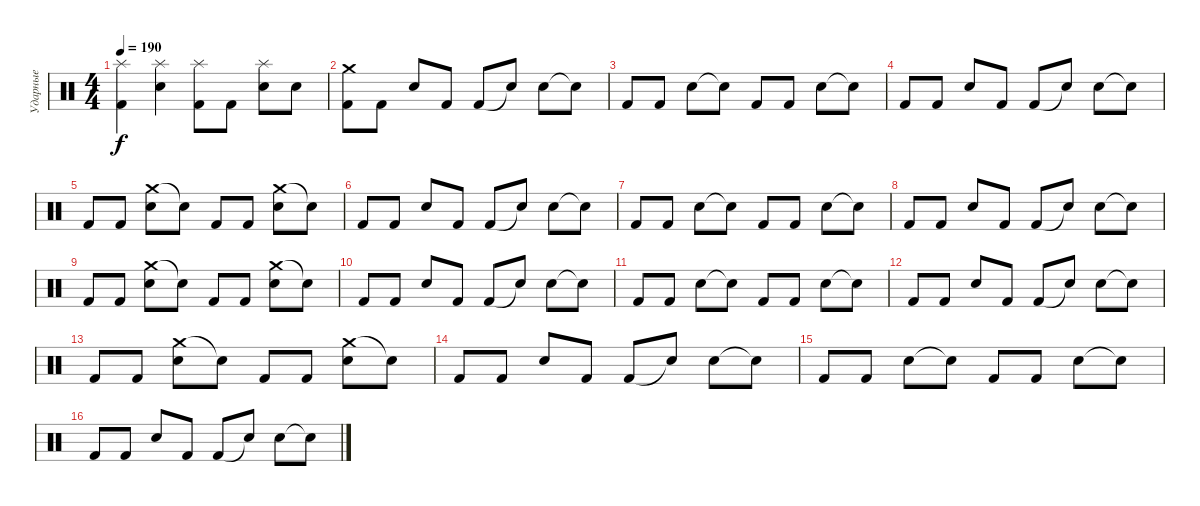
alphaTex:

\track ("Ударные" "Ударные") {instrument percussion}
\staff {score}
\articulation defaults
\ts (4 4)
\tempo 190
\clef neutral
\ks c
("Splash (hit)" "Kick (hit) 2").4{dy f} ("Splash (hit)" "Snare (hit) 2").4 ("Splash (hit)" "Kick (hit) 2").8 "Kick (hit) 2".8 ("Splash (hit)" "Snare (hit) 2").8 "Snare (hit) 2".8 |
("Crash medium (hit)" "Kick (hit) 2").8 "Kick (hit) 2".8 "Snare (hit) 2".8 "Kick (hit) 2".8 "Kick (hit) 2".8 "Snare (hit)"{t}.8 "Snare (hit) 2".8 "Snare (hit)"{t}.8 |
"Kick (hit) 2".8 "Kick (hit) 2".8 "Snare (hit) 2".8 "Snare (hit)"{t}.8 "Kick (hit) 2".8 "Kick (hit) 2".8 "Snare (hit) 2".8 "Snare (hit)"{t}.8 |
"Kick (hit) 2".8 "Kick (hit) 2".8 "Snare (hit) 2".8 "Kick (hit) 2".8 "Kick (hit) 2".8 "Snare (hit)"{t}.8 "Snare (hit) 2".8 "Snare (hit)"{t}.8 |
"Kick (hit) 2".8 "Kick (hit) 2".8 ("Crash medium (hit)" "Snare (hit) 2").8 "Snare (hit)"{t}.8 "Kick (hit) 2".8 "Kick (hit) 2".8 ("Crash medium (hit)" "Snare (hit) 2").8 "Snare (hit)"{t}.8 |
"Kick (hit) 2".8 "Kick (hit) 2".8 "Snare (hit) 2".8 "Kick (hit) 2".8 "Kick (hit) 2".8 "Snare (hit)"{t}.8 "Snare (hit) 2".8 "Snare (hit)"{t}.8 |
"Kick (hit) 2".8 "Kick (hit) 2".8 "Snare (hit) 2".8 "Snare (hit)"{t}.8 "Kick (hit) 2".8 "Kick (hit) 2".8 "Snare (hit) 2".8 "Snare (hit)"{t}.8 |
"Kick (hit) 2".8 "Kick (hit) 2".8 "Snare (hit) 2".8 "Kick (hit) 2".8 "Kick (hit) 2".8 "Snare (hit)"{t}.8 "Snare (hit) 2".8 "Snare (hit)"{t}.8 |
"Kick (hit) 2".8 "Kick (hit) 2".8 ("Crash medium (hit)" "Snare (hit) 2").8 "Snare (hit)"{t}.8 "Kick (hit) 2".8 "Kick (hit) 2".8 ("Crash medium (hit)" "Snare (hit) 2").8 "Snare (hit)"{t}.8 |
"Kick (hit) 2".8 "Kick (hit) 2".8 "Snare (hit) 2".8 "Kick (hit) 2".8 "Kick (hit) 2".8 "Snare (hit)"{t}.8 "Snare (hit) 2".8 "Snare (hit)"{t}.8 |
"Kick (hit) 2".8 "Kick (hit) 2".8 "Snare (hit) 2".8 "Snare (hit)"{t}.8 "Kick (hit) 2".8 "Kick (hit) 2".8 "Snare (hit) 2".8 "Snare (hit)"{t}.8 |
"Kick (hit) 2".8 "Kick (hit) 2".8 "Snare (hit) 2".8 "Kick (hit) 2".8 "Kick (hit) 2".8 "Snare (hit)"{t}.8 "Snare (hit) 2".8 "Snare (hit)"{t}.8 |
"Kick (hit) 2".8 "Kick (hit) 2".8 ("Crash medium (hit)" "Snare (hit) 2").8 "Snare (hit)"{t}.8 "Kick (hit) 2".8 "Kick (hit) 2".8 ("Crash medium (hit)" "Snare (hit) 2").8 "Snare (hit)"{t}.8 |
"Kick (hit) 2".8 "Kick (hit) 2".8 "Snare (hit) 2".8 "Kick (hit) 2".8 "Kick (hit) 2".8 "Snare (hit)"{t}.8 "Snare (hit) 2".8 "Snare (hit)"{t}.8 |
"Kick (hit) 2".8 "Kick (hit) 2".8 "Snare (hit) 2".8 "Snare (hit)"{t}.8 "Kick (hit) 2".8 "Kick (hit) 2".8 "Snare (hit) 2".8 "Snare (hit)"{t}.8 |
"Kick (hit) 2".8 "Kick (hit) 2".8 "Snare (hit) 2".8 "Kick (hit) 2".8 "Kick (hit) 2".8 "Snare (hit)"{t}.8 "Snare (hit) 2".8 "Snare (hit)"{t}.8
